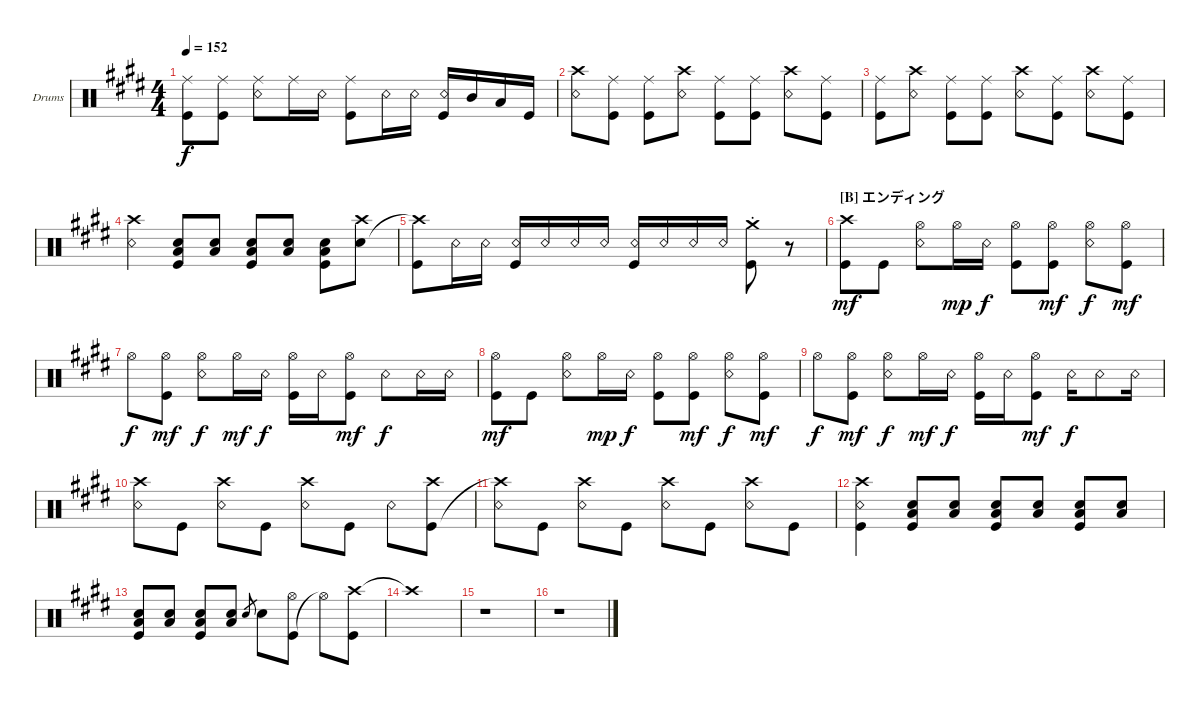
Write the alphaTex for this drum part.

\bracketExtendMode groupsimilarinstruments
\firstSystemTrackNameOrientation horizontal
\otherSystemsTrackNameOrientation horizontal
\track ("Ichigo" "Drums") {instrument percussion}
\staff {score}
\articulation defaults
\ts (4 4)
\tempo 152
\clef neutral
\ks e
("Kick (hit)" "Ride (middle)").8{dy f} ("Kick (hit)" "Ride (middle)").8 ("Snare (rim shot)" "Ride (middle)").8 "Ride (middle)".16 "Snare (rim shot)".16 ("Kick (hit)" "Ride (middle)").8 "Snare (rim shot)".16 "Snare (rim shot)".16 ("Snare (rim shot)" "Kick (hit)").16 "Mid Tom (hit)".16 "Low Tom (hit)".16 "Kick (hit)".16 |
("Snare (rim shot)" "Crash high (hit)").8 ("Kick (hit)" "Ride (middle)").8 ("Kick (hit)" "Ride (middle)").8 ("Snare (rim shot)" "Crash high (hit)").8 ("Kick (hit)" "Ride (middle)").8 ("Kick (hit)" "Ride (middle)").8 ("Snare (rim shot)" "Crash high (hit)").8 ("Kick (hit)" "Ride (middle)").8 |
("Kick (hit)" "Ride (middle)").8 ("Snare (rim shot)" "Crash high (hit)").8 ("Kick (hit)" "Ride (middle)").8 ("Kick (hit)" "Ride (middle)").8 ("Snare (rim shot)" "Crash high (hit)").8 ("Kick (hit)" "Ride (middle)").8 ("Snare (rim shot)" "Crash high (hit)").8 ("Kick (hit)" "Ride (middle)").8 |
("Snare (rim shot)" "Crash high (hit)").4 ("Snare (hit) 2" "Low Tom (hit)" "Kick (hit)").8 ("Snare (hit) 2" "Low Tom (hit)").8 ("Snare (hit) 2" "Low Tom (hit)" "Kick (hit)").8 ("Snare (hit) 2" "Low Tom (hit)").8 ("Snare (hit) 2" "Low Tom (hit)" "Kick (hit)").8 ("Snare (hit) 2" "Crash high (hit)").8 |
("Crash high (hit)"{t} "Kick (hit)").8 "Snare (rim shot)".16 "Snare (rim shot)".16 ("Snare (rim shot)" "Kick (hit)").16 "Snare (rim shot)".16 "Snare (rim shot)".16 "Snare (rim shot)".16 ("Snare (rim shot)" "Kick (hit)").16 "Snare (rim shot)".16 "Snare (rim shot)".16 "Snare (rim shot)".16 ("Kick (hit)" "Crash medium (hit)"{st}).8 r.8 |
\section ("B" "エンディング")
("Kick (hit)" "Crash high (hit)").8{dy mf} "Kick (hit)".8 ("Snare (rim shot)" "Hi-Hat (open)").8 "Hi-Hat (open)".16{dy mp} "Snare (rim shot)".16{dy f} ("Kick (hit)" "Hi-Hat (open)").8 ("Hi-Hat (open)" "Kick (hit)").8{dy mf} ("Hi-Hat (open)" "Snare (rim shot)").8{dy f} ("Hi-Hat (open)" "Kick (hit)").8{dy mf} |
"Hi-Hat (open)".8{dy f} ("Kick (hit)" "Hi-Hat (open)").8{dy mf} ("Snare (rim shot)" "Hi-Hat (open)").8{dy f} "Hi-Hat (open)".16{dy mf} "Snare (rim shot)".16{dy f} ("Kick (hit)" "Hi-Hat (open)").16 "Snare (rim shot)".16 ("Hi-Hat (open)" "Kick (hit)").8{dy mf} "Snare (rim shot)".8{dy f} "Snare (rim shot)".16 "Snare (rim shot)".16 |
("Kick (hit)" "Hi-Hat (open)").8{dy mf} "Kick (hit)".8 ("Snare (rim shot)" "Hi-Hat (open)").8 "Hi-Hat (open)".16{dy mp} "Snare (rim shot)".16{dy f} ("Kick (hit)" "Hi-Hat (open)").8 ("Hi-Hat (open)" "Kick (hit)").8{dy mf} ("Hi-Hat (open)" "Snare (rim shot)").8{dy f} ("Hi-Hat (open)" "Kick (hit)").8{dy mf} |
"Hi-Hat (open)".8{dy f} ("Kick (hit)" "Hi-Hat (open)").8{dy mf} ("Snare (rim shot)" "Hi-Hat (open)").8{dy f} "Hi-Hat (open)".16{dy mf} "Snare (rim shot)".16{dy f} ("Kick (hit)" "Hi-Hat (open)").16 "Snare (rim shot)".16 ("Hi-Hat (open)" "Kick (hit)").8{dy mf} "Snare (rim shot)".16{dy f} "Snare (rim shot)".8 "Snare (rim shot)".16 |
("Crash high (hit)" "Snare (rim shot)").8 "Kick (hit)".8 ("Crash high (hit)" "Snare (rim shot)").8 "Kick (hit)".8 ("Crash high (hit)" "Snare (rim shot)").8 "Kick (hit)".8 "Snare (rim shot)".8 ("Kick (hit)" "Crash high (hit)").8 |
("Crash high (hit)"{t} "Snare (rim shot)").8 "Kick (hit)".8 ("Crash high (hit)" "Snare (rim shot)").8 "Kick (hit)".8 ("Crash high (hit)" "Snare (rim shot)").8 "Kick (hit)".8 ("Crash high (hit)" "Snare (rim shot)").8 "Kick (hit)".8 |
("Snare (rim shot)" "Crash high (hit)" "Kick (hit)").4 ("Snare (hit) 2" "Low Tom (hit)" "Kick (hit)").8 ("Snare (hit) 2" "Low Tom (hit)").8 ("Snare (hit) 2" "Low Tom (hit)" "Kick (hit)").8 ("Snare (hit) 2" "Low Tom (hit)").8 ("Snare (hit) 2" "Low Tom (hit)" "Kick (hit)").8 ("Snare (hit) 2" "Low Tom (hit)").8 |
("Snare (hit) 2" "Low Tom (hit)" "Kick (hit)").8 ("Snare (hit) 2" "Low Tom (hit)").8 ("Snare (hit) 2" "Low Tom (hit)" "Kick (hit)").8 ("Snare (hit) 2" "Low Tom (hit)").8 "Snare (hit) 2".8{gr} "Snare (hit) 2".8 ("Kick (hit)" "Hi-Hat (open)").8 "Hi-Hat (open)"{t}.8 ("Crash high (hit)" "Kick (hit)").8 |
"Crash high (hit)"{t}.1 |
r.1 |
r.1
